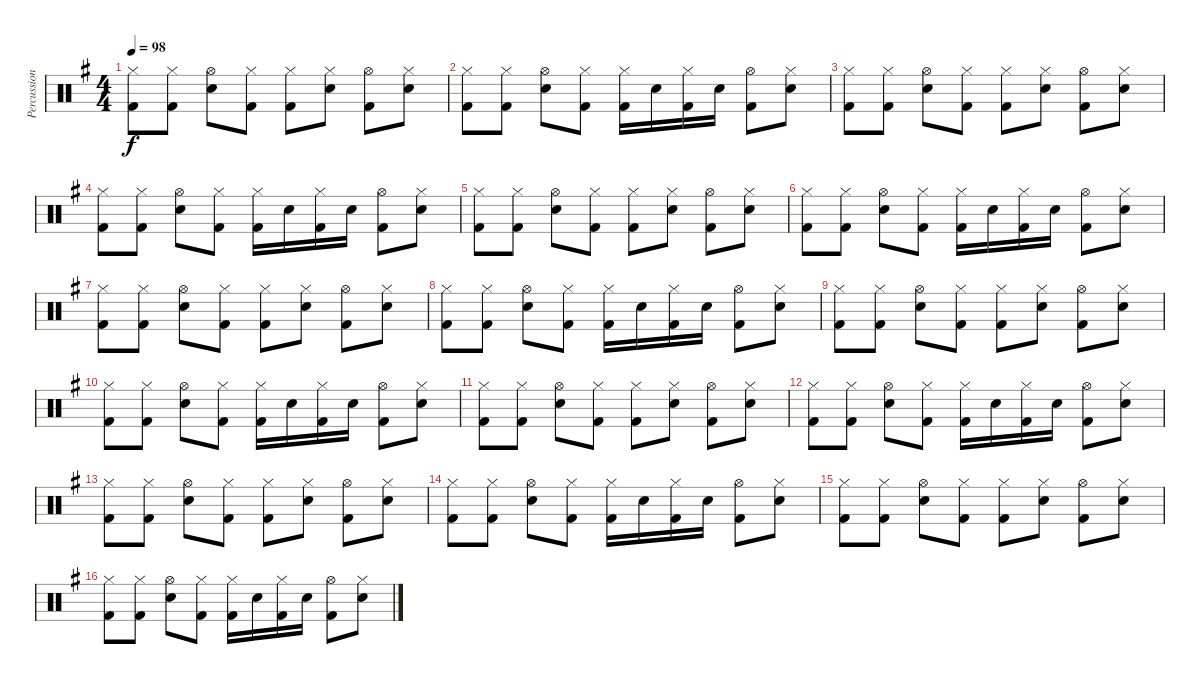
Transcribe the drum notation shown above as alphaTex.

\track ("Percussion" "Percussion") {instrument percussion}
\staff {score}
\articulation defaults
\ts (4 4)
\tempo 98
\clef neutral
\ks eminor
("Hi-Hat (closed)" "Kick (hit) 2").8{dy f} ("Hi-Hat (closed)" "Kick (hit) 2").8 ("Hi-Hat (open)" "Electric Snare (hit)").8 ("Hi-Hat (closed)" "Kick (hit) 2").8 ("Hi-Hat (closed)" "Kick (hit) 2").8 ("Hi-Hat (closed)" "Electric Snare (hit)").8 ("Hi-Hat (open)" "Kick (hit) 2").8 ("Hi-Hat (closed)" "Electric Snare (hit)").8 |
("Hi-Hat (closed)" "Kick (hit) 2").8 ("Hi-Hat (closed)" "Kick (hit) 2").8 ("Hi-Hat (open)" "Electric Snare (hit)").8 ("Hi-Hat (closed)" "Kick (hit) 2").8 ("Hi-Hat (closed)" "Kick (hit) 2").16 "Electric Snare (hit)".16 ("Hi-Hat (closed)" "Kick (hit) 2").16 "Electric Snare (hit)".16 ("Hi-Hat (open)" "Kick (hit) 2").8 ("Hi-Hat (closed)" "Electric Snare (hit)").8 |
("Hi-Hat (closed)" "Kick (hit) 2").8 ("Hi-Hat (closed)" "Kick (hit) 2").8 ("Hi-Hat (open)" "Electric Snare (hit)").8 ("Hi-Hat (closed)" "Kick (hit) 2").8 ("Hi-Hat (closed)" "Kick (hit) 2").8 ("Hi-Hat (closed)" "Electric Snare (hit)").8 ("Hi-Hat (open)" "Kick (hit) 2").8 ("Hi-Hat (closed)" "Electric Snare (hit)").8 |
("Hi-Hat (closed)" "Kick (hit) 2").8 ("Hi-Hat (closed)" "Kick (hit) 2").8 ("Hi-Hat (open)" "Electric Snare (hit)").8 ("Hi-Hat (closed)" "Kick (hit) 2").8 ("Hi-Hat (closed)" "Kick (hit) 2").16 "Electric Snare (hit)".16 ("Hi-Hat (closed)" "Kick (hit) 2").16 "Electric Snare (hit)".16 ("Hi-Hat (open)" "Kick (hit) 2").8 ("Hi-Hat (closed)" "Electric Snare (hit)").8 |
("Hi-Hat (closed)" "Kick (hit) 2").8 ("Hi-Hat (closed)" "Kick (hit) 2").8 ("Hi-Hat (open)" "Electric Snare (hit)").8 ("Hi-Hat (closed)" "Kick (hit) 2").8 ("Hi-Hat (closed)" "Kick (hit) 2").8 ("Hi-Hat (closed)" "Electric Snare (hit)").8 ("Hi-Hat (open)" "Kick (hit) 2").8 ("Hi-Hat (closed)" "Electric Snare (hit)").8 |
("Hi-Hat (closed)" "Kick (hit) 2").8 ("Hi-Hat (closed)" "Kick (hit) 2").8 ("Hi-Hat (open)" "Electric Snare (hit)").8 ("Hi-Hat (closed)" "Kick (hit) 2").8 ("Hi-Hat (closed)" "Kick (hit) 2").16 "Electric Snare (hit)".16 ("Hi-Hat (closed)" "Kick (hit) 2").16 "Electric Snare (hit)".16 ("Hi-Hat (open)" "Kick (hit) 2").8 ("Hi-Hat (closed)" "Electric Snare (hit)").8 |
("Hi-Hat (closed)" "Kick (hit) 2").8 ("Hi-Hat (closed)" "Kick (hit) 2").8 ("Hi-Hat (open)" "Electric Snare (hit)").8 ("Hi-Hat (closed)" "Kick (hit) 2").8 ("Hi-Hat (closed)" "Kick (hit) 2").8 ("Hi-Hat (closed)" "Electric Snare (hit)").8 ("Hi-Hat (open)" "Kick (hit) 2").8 ("Hi-Hat (closed)" "Electric Snare (hit)").8 |
("Hi-Hat (closed)" "Kick (hit) 2").8 ("Hi-Hat (closed)" "Kick (hit) 2").8 ("Hi-Hat (open)" "Electric Snare (hit)").8 ("Hi-Hat (closed)" "Kick (hit) 2").8 ("Hi-Hat (closed)" "Kick (hit) 2").16 "Electric Snare (hit)".16 ("Hi-Hat (closed)" "Kick (hit) 2").16 "Electric Snare (hit)".16 ("Hi-Hat (open)" "Kick (hit) 2").8 ("Hi-Hat (closed)" "Electric Snare (hit)").8 |
("Hi-Hat (closed)" "Kick (hit) 2").8 ("Hi-Hat (closed)" "Kick (hit) 2").8 ("Hi-Hat (open)" "Electric Snare (hit)").8 ("Hi-Hat (closed)" "Kick (hit) 2").8 ("Hi-Hat (closed)" "Kick (hit) 2").8 ("Hi-Hat (closed)" "Electric Snare (hit)").8 ("Hi-Hat (open)" "Kick (hit) 2").8 ("Hi-Hat (closed)" "Electric Snare (hit)").8 |
("Hi-Hat (closed)" "Kick (hit) 2").8 ("Hi-Hat (closed)" "Kick (hit) 2").8 ("Hi-Hat (open)" "Electric Snare (hit)").8 ("Hi-Hat (closed)" "Kick (hit) 2").8 ("Hi-Hat (closed)" "Kick (hit) 2").16 "Electric Snare (hit)".16 ("Hi-Hat (closed)" "Kick (hit) 2").16 "Electric Snare (hit)".16 ("Hi-Hat (open)" "Kick (hit) 2").8 ("Hi-Hat (closed)" "Electric Snare (hit)").8 |
("Hi-Hat (closed)" "Kick (hit) 2").8 ("Hi-Hat (closed)" "Kick (hit) 2").8 ("Hi-Hat (open)" "Electric Snare (hit)").8 ("Hi-Hat (closed)" "Kick (hit) 2").8 ("Hi-Hat (closed)" "Kick (hit) 2").8 ("Hi-Hat (closed)" "Electric Snare (hit)").8 ("Hi-Hat (open)" "Kick (hit) 2").8 ("Hi-Hat (closed)" "Electric Snare (hit)").8 |
("Hi-Hat (closed)" "Kick (hit) 2").8 ("Hi-Hat (closed)" "Kick (hit) 2").8 ("Hi-Hat (open)" "Electric Snare (hit)").8 ("Hi-Hat (closed)" "Kick (hit) 2").8 ("Hi-Hat (closed)" "Kick (hit) 2").16 "Electric Snare (hit)".16 ("Hi-Hat (closed)" "Kick (hit) 2").16 "Electric Snare (hit)".16 ("Hi-Hat (open)" "Kick (hit) 2").8 ("Hi-Hat (closed)" "Electric Snare (hit)").8 |
("Hi-Hat (closed)" "Kick (hit) 2").8 ("Hi-Hat (closed)" "Kick (hit) 2").8 ("Hi-Hat (open)" "Electric Snare (hit)").8 ("Hi-Hat (closed)" "Kick (hit) 2").8 ("Hi-Hat (closed)" "Kick (hit) 2").8 ("Hi-Hat (closed)" "Electric Snare (hit)").8 ("Hi-Hat (open)" "Kick (hit) 2").8 ("Hi-Hat (closed)" "Electric Snare (hit)").8 |
("Hi-Hat (closed)" "Kick (hit) 2").8 ("Hi-Hat (closed)" "Kick (hit) 2").8 ("Hi-Hat (open)" "Electric Snare (hit)").8 ("Hi-Hat (closed)" "Kick (hit) 2").8 ("Hi-Hat (closed)" "Kick (hit) 2").16 "Electric Snare (hit)".16 ("Hi-Hat (closed)" "Kick (hit) 2").16 "Electric Snare (hit)".16 ("Hi-Hat (open)" "Kick (hit) 2").8 ("Hi-Hat (closed)" "Electric Snare (hit)").8 |
("Hi-Hat (closed)" "Kick (hit) 2").8 ("Hi-Hat (closed)" "Kick (hit) 2").8 ("Hi-Hat (open)" "Electric Snare (hit)").8 ("Hi-Hat (closed)" "Kick (hit) 2").8 ("Hi-Hat (closed)" "Kick (hit) 2").8 ("Hi-Hat (closed)" "Electric Snare (hit)").8 ("Hi-Hat (open)" "Kick (hit) 2").8 ("Hi-Hat (closed)" "Electric Snare (hit)").8 |
("Hi-Hat (closed)" "Kick (hit) 2").8 ("Hi-Hat (closed)" "Kick (hit) 2").8 ("Hi-Hat (open)" "Electric Snare (hit)").8 ("Hi-Hat (closed)" "Kick (hit) 2").8 ("Hi-Hat (closed)" "Kick (hit) 2").16 "Electric Snare (hit)".16 ("Hi-Hat (closed)" "Kick (hit) 2").16 "Electric Snare (hit)".16 ("Hi-Hat (open)" "Kick (hit) 2").8 ("Hi-Hat (closed)" "Electric Snare (hit)").8
